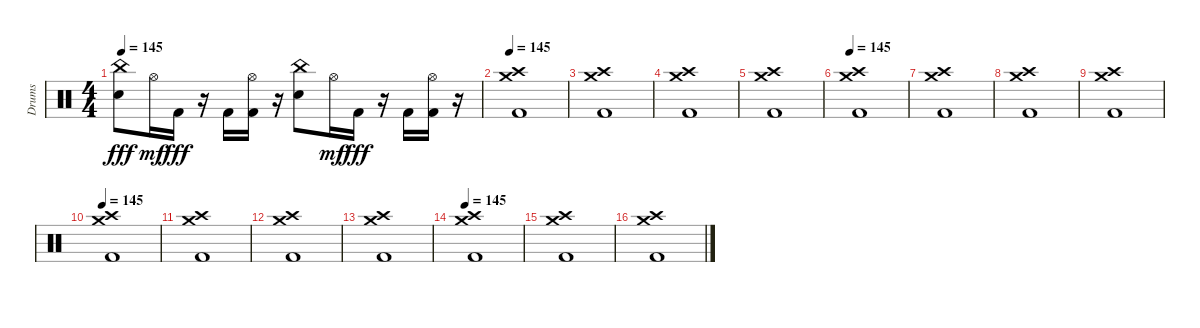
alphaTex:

\track ("Drums" "Drums") {instrument percussion}
\staff {score}
\articulation defaults
\ts (4 4)
\tempo 145
\clef neutral
\ks c
("China (hit)" "Snare (hit) 2").8{dy fff} "Hi-Hat (open)".16{dy mf} "Kick (hit) 2".16{dy fff} r.16 "Kick (hit) 2".16 ("Hi-Hat (open)" "Kick (hit) 2").16 r.16 ("China (hit)" "Snare (hit) 2").8 "Hi-Hat (open)".16{dy mf} "Kick (hit) 2".16{dy fff} r.16 "Kick (hit) 2".16 ("Hi-Hat (open)" "Kick (hit) 2").16 r.16 |
\tempo 145
("Crash medium (hit)" "Crash high (hit)" "Kick (hit) 2").1 |
("Crash medium (hit)" "Crash high (hit)" "Kick (hit) 2").1 |
("Crash medium (hit)" "Crash high (hit)" "Kick (hit) 2").1 |
("Crash medium (hit)" "Crash high (hit)" "Kick (hit) 2").1 |
\tempo 145
("Crash medium (hit)" "Crash high (hit)" "Kick (hit) 2").1 |
("Crash medium (hit)" "Crash high (hit)" "Kick (hit) 2").1 |
("Crash medium (hit)" "Crash high (hit)" "Kick (hit) 2").1 |
("Crash medium (hit)" "Crash high (hit)" "Kick (hit) 2").1 |
\tempo 145
("Crash medium (hit)" "Crash high (hit)" "Kick (hit) 2").1 |
("Crash medium (hit)" "Crash high (hit)" "Kick (hit) 2").1 |
("Crash medium (hit)" "Crash high (hit)" "Kick (hit) 2").1 |
("Crash medium (hit)" "Crash high (hit)" "Kick (hit) 2").1 |
\tempo 145
("Crash medium (hit)" "Crash high (hit)" "Kick (hit) 2").1 |
("Crash medium (hit)" "Crash high (hit)" "Kick (hit) 2").1 |
("Crash medium (hit)" "Crash high (hit)" "Kick (hit) 2").1
